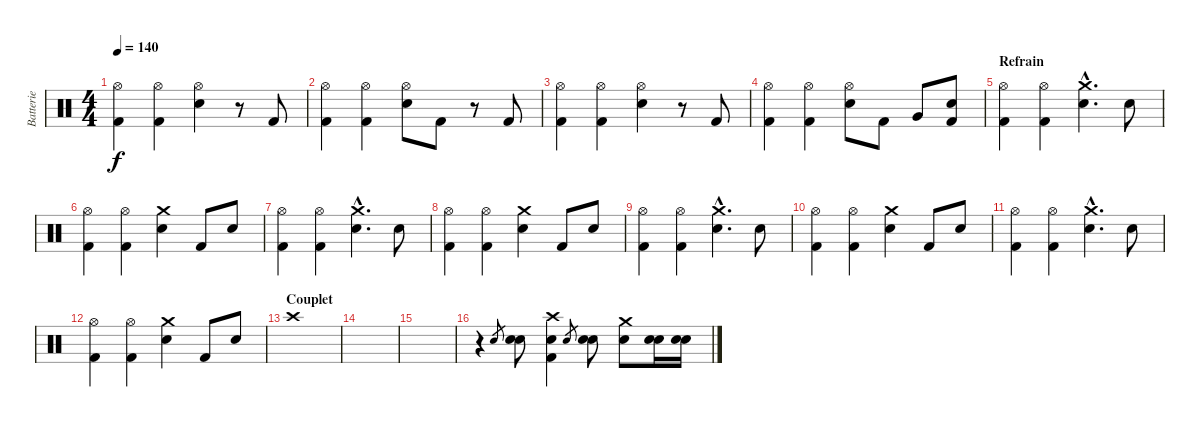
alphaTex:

\track ("Batterie" "Batterie") {instrument percussion}
\staff {score}
\articulation defaults
\ts (4 4)
\tempo 140
\clef neutral
\ks c
("Hi-Hat (open)" "Kick (hit) 2").4{dy f} ("Hi-Hat (open)" "Kick (hit) 2").4 ("Hi-Hat (open)" "Electric Snare (hit)").4 r.8 "Kick (hit) 2".8 |
("Hi-Hat (open)" "Kick (hit) 2").4 ("Hi-Hat (open)" "Kick (hit) 2").4 ("Hi-Hat (open)" "Electric Snare (hit)").8 "Kick (hit) 2".8 r.8 "Kick (hit) 2".8 |
("Hi-Hat (open)" "Kick (hit) 2").4 ("Hi-Hat (open)" "Kick (hit) 2").4 ("Hi-Hat (open)" "Electric Snare (hit)").4 r.8 "Kick (hit) 2".8 |
("Hi-Hat (open)" "Kick (hit) 2").4 ("Hi-Hat (open)" "Kick (hit) 2").4 ("Hi-Hat (open)" "Electric Snare (hit)").8 "Kick (hit) 2".8 "Very Low Tom (hit)".8 ("Electric Snare (hit)" "Kick (hit) 2").8 |
\section ("" "Refrain")
("Hi-Hat (open)" "Kick (hit) 2").4 ("Hi-Hat (open)" "Kick (hit) 2").4 ("Crash medium (hit)"{hac} "Snare (hit) 2"{hac}).4{d} "Snare (hit) 2".8 |
("Hi-Hat (open)" "Kick (hit) 2").4 ("Hi-Hat (open)" "Kick (hit) 2").4 ("Crash medium (hit)" "Snare (hit) 2").4 "Kick (hit) 2".8 "Snare (hit) 2".8 |
("Hi-Hat (open)" "Kick (hit) 2").4 ("Hi-Hat (open)" "Kick (hit) 2").4 ("Crash medium (hit)"{hac} "Snare (hit) 2"{hac}).4{d} "Snare (hit) 2".8 |
("Hi-Hat (open)" "Kick (hit) 2").4 ("Hi-Hat (open)" "Kick (hit) 2").4 ("Crash medium (hit)" "Snare (hit) 2").4 "Kick (hit) 2".8 "Snare (hit) 2".8 |
("Hi-Hat (open)" "Kick (hit) 2").4 ("Hi-Hat (open)" "Kick (hit) 2").4 ("Crash medium (hit)"{hac} "Snare (hit) 2"{hac}).4{d} "Snare (hit) 2".8 |
("Hi-Hat (open)" "Kick (hit) 2").4 ("Hi-Hat (open)" "Kick (hit) 2").4 ("Crash medium (hit)" "Snare (hit) 2").4 "Kick (hit) 2".8 "Snare (hit) 2".8 |
("Hi-Hat (open)" "Kick (hit) 2").4 ("Hi-Hat (open)" "Kick (hit) 2").4 ("Crash medium (hit)"{hac} "Snare (hit) 2"{hac}).4{d} "Snare (hit) 2".8 |
("Hi-Hat (open)" "Kick (hit) 2").4 ("Hi-Hat (open)" "Kick (hit) 2").4 ("Crash medium (hit)" "Snare (hit) 2").4 "Kick (hit) 2".8 "Snare (hit) 2".8 |
\section ("" "Couplet")
"Crash high (hit)".1 |
|
|
r.4 "Snare (hit) 2".8{gr} ("Snare (hit) 2" "Snare (hit) 2").8 ("Crash high (hit)" "Snare (hit) 2" "Kick (hit) 2").4 "Snare (hit) 2".8{gr} ("Snare (hit) 2" "Snare (hit) 2").8 ("Crash medium (hit)" "Snare (hit) 2").8 ("Snare (hit) 2" "Snare (hit) 2").16 ("Snare (hit) 2" "Snare (hit) 2").16
